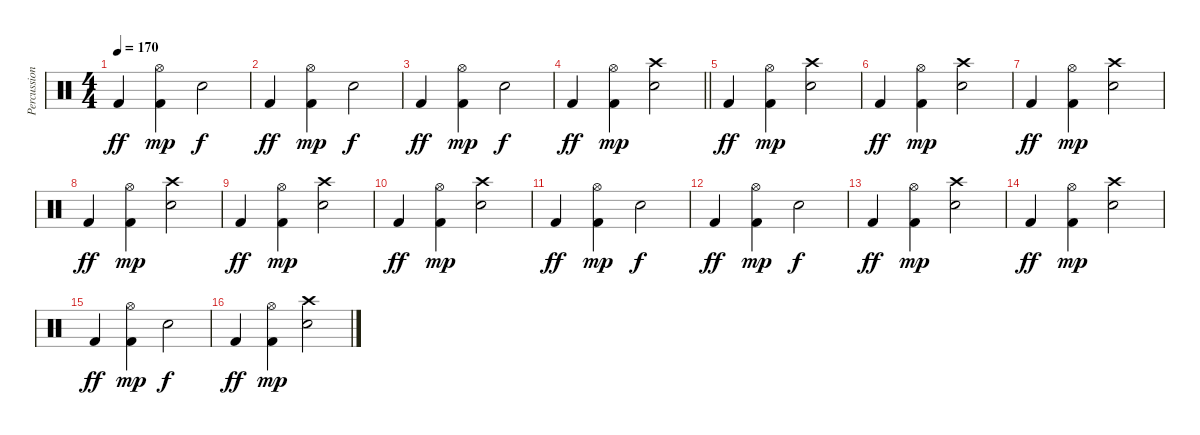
\track ("Percussion" "Percussion") {instrument percussion}
\staff {score}
\articulation defaults
\ts (4 4)
\tempo 170
\clef neutral
\ks c "Kick (hit) 2".4{dy ff}
("Hi-Hat (open)" "Kick (hit) 2").4{dy mp} "Electric Snare (hit)".2{dy f} |
"Kick (hit) 2".4{dy ff} ("Hi-Hat (open)" "Kick (hit) 2").4{dy mp} "Electric Snare (hit)".2{dy f} |
"Kick (hit) 2".4{dy ff} ("Hi-Hat (open)" "Kick (hit) 2").4{dy mp} "Electric Snare (hit)".2{dy f} |
\barLineRight lightlight "Kick (hit) 2".4{dy ff}
("Hi-Hat (open)" "Kick (hit) 2").4{dy mp} ("Crash high (hit)" "Electric Snare (hit)").2 |
"Kick (hit) 2".4{dy ff} ("Hi-Hat (open)" "Kick (hit) 2").4{dy mp} ("Crash high (hit)" "Electric Snare (hit)").2 |
"Kick (hit) 2".4{dy ff} ("Hi-Hat (open)" "Kick (hit) 2").4{dy mp} ("Crash high (hit)" "Electric Snare (hit)").2 |
"Kick (hit) 2".4{dy ff} ("Hi-Hat (open)" "Kick (hit) 2").4{dy mp} ("Crash high (hit)" "Electric Snare (hit)").2 |
"Kick (hit) 2".4{dy ff} ("Hi-Hat (open)" "Kick (hit) 2").4{dy mp} ("Crash high (hit)" "Electric Snare (hit)").2 |
"Kick (hit) 2".4{dy ff} ("Hi-Hat (open)" "Kick (hit) 2").4{dy mp} ("Crash high (hit)" "Electric Snare (hit)").2 |
"Kick (hit) 2".4{dy ff} ("Hi-Hat (open)" "Kick (hit) 2").4{dy mp} ("Crash high (hit)" "Electric Snare (hit)").2 |
"Kick (hit) 2".4{dy ff} ("Hi-Hat (open)" "Kick (hit) 2").4{dy mp} "Electric Snare (hit)".2{dy f} |
"Kick (hit) 2".4{dy ff} ("Hi-Hat (open)" "Kick (hit) 2").4{dy mp} "Electric Snare (hit)".2{dy f} |
"Kick (hit) 2".4{dy ff} ("Hi-Hat (open)" "Kick (hit) 2").4{dy mp} ("Crash high (hit)" "Electric Snare (hit)").2 |
"Kick (hit) 2".4{dy ff} ("Hi-Hat (open)" "Kick (hit) 2").4{dy mp} ("Crash high (hit)" "Electric Snare (hit)").2 |
"Kick (hit) 2".4{dy ff} ("Hi-Hat (open)" "Kick (hit) 2").4{dy mp} "Electric Snare (hit)".2{dy f} |
"Kick (hit) 2".4{dy ff} ("Hi-Hat (open)" "Kick (hit) 2").4{dy mp} ("Crash high (hit)" "Electric Snare (hit)").2
